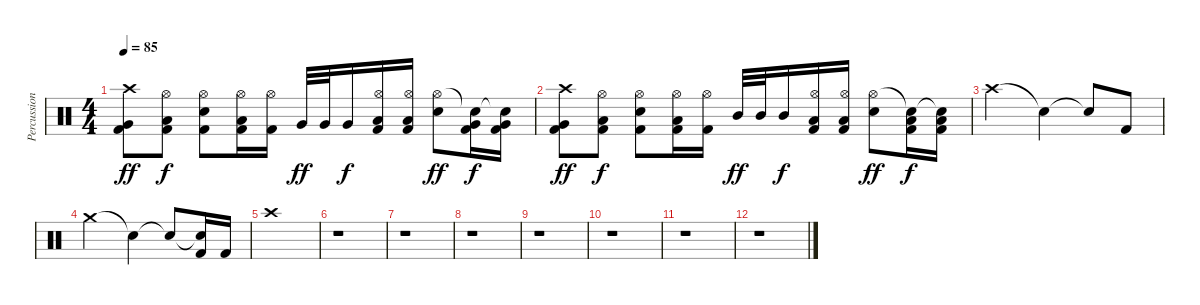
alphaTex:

\track ("Percussion" "Percussion") {instrument percussion}
\staff {score}
\articulation defaults
\ts (4 4)
\tempo 85
\clef neutral
\ks c
("Crash high (hit)" "Very Low Tom (hit)" "Kick (hit) 2").8{dy ff} ("Hi-Hat (open)" "Low Floor Tom (hit)" "Kick (hit) 2").8{dy f} ("Hi-Hat (open)" "Electric Snare (hit)" "Kick (hit) 2").8 ("Hi-Hat (open)" "Low Floor Tom (hit)" "Kick (hit) 2").16 ("Hi-Hat (open)" "Kick (hit) 2").16 "Very Low Tom (hit)".32{dy ff} "Very Low Tom (hit)".32 "Very Low Tom (hit)".16{dy f} ("Hi-Hat (open)" "Low Floor Tom (hit)" "Kick (hit) 2").16 ("Hi-Hat (open)" "Low Floor Tom (hit)" "Kick (hit) 2").16 ("Hi-Hat (open)" "Electric Snare (hit)").8{dy ff} ("Snare (hit)"{t} "Very Low Tom (hit)" "Kick (hit) 2").16{dy f} ("Snare (hit)"{t} "Very Low Tom (hit)" "Kick (hit) 2").16 |
("Crash high (hit)" "Very Low Tom (hit)" "Kick (hit) 2").8{dy ff} ("Hi-Hat (open)" "Low Floor Tom (hit)" "Kick (hit) 2").8{dy f} ("Hi-Hat (open)" "Electric Snare (hit)" "Kick (hit) 2").8 ("Hi-Hat (open)" "Low Floor Tom (hit)" "Kick (hit) 2").16 ("Hi-Hat (open)" "Kick (hit) 2").16 "Mid Tom (hit)".32{dy ff} "Mid Tom (hit)".32 "Mid Tom (hit)".16{dy f} ("Hi-Hat (open)" "Low Floor Tom (hit)" "Kick (hit) 2").16 ("Hi-Hat (open)" "Low Floor Tom (hit)" "Kick (hit) 2").16 ("Hi-Hat (open)" "Electric Snare (hit)").8{dy ff} ("Snare (hit)"{t} "Low Floor Tom (hit)" "Kick (hit) 2").16{dy f} ("Snare (hit)"{t} "Low Floor Tom (hit)" "Kick (hit) 2").16 |
"Crash high (hit)".2 "Snare (hit)"{t}.4 "Snare (hit)"{t}.8 "Kick (hit) 2".8 |
"Crash medium (hit)".2 "Snare (hit)"{t}.4 "Snare (hit)"{t}.8 ("Snare (hit)"{t} "Kick (hit) 2").16 "Kick (hit) 2".16 |
"Crash high (hit)".1 |
r.1 |
r.1 |
r.1 |
r.1 |
r.1 |
r.1 |
r.1
